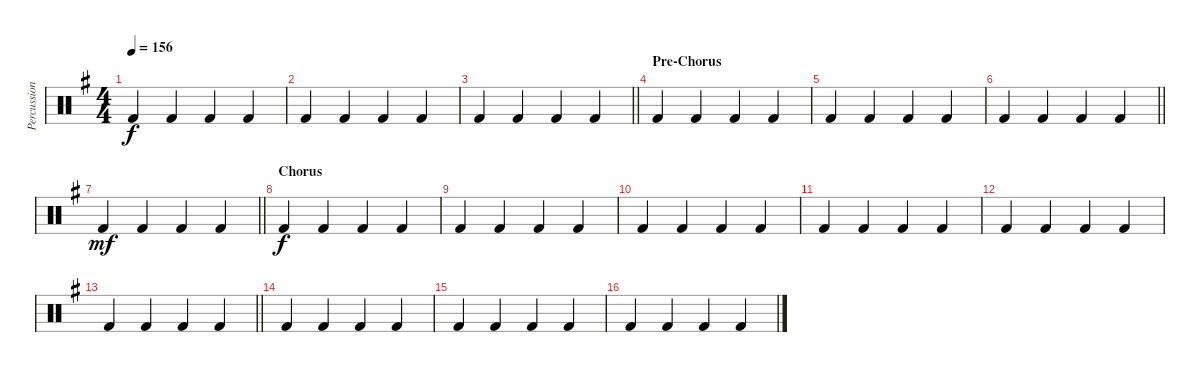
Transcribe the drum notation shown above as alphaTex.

\track ("Percussion" "Percussion") {instrument percussion}
\staff {score}
\articulation defaults
\ts (4 4)
\tempo 156
\clef neutral
\ks g "Kick (hit) 2".4{dy f} "Kick (hit) 2".4 "Kick (hit) 2".4 "Kick (hit) 2".4
|
"Kick (hit) 2".4 "Kick (hit) 2".4 "Kick (hit) 2".4 "Kick (hit) 2".4 |
\barLineRight lightlight "Kick (hit) 2".4 "Kick (hit) 2".4 "Kick (hit) 2".4 "Kick (hit) 2".4
|
\section ("" "Pre-Chorus")
"Kick (hit) 2".4 "Kick (hit) 2".4 "Kick (hit) 2".4 "Kick (hit) 2".4 |
"Kick (hit) 2".4 "Kick (hit) 2".4 "Kick (hit) 2".4 "Kick (hit) 2".4 |
\barLineRight lightlight "Kick (hit) 2".4 "Kick (hit) 2".4 "Kick (hit) 2".4 "Kick (hit) 2".4
|
\barLineRight lightlight "Kick (hit) 2".4{dy mf} "Kick (hit) 2".4 "Kick (hit) 2".4 "Kick (hit) 2".4
|
\section ("" "Chorus")
"Kick (hit) 2".4{dy f} "Kick (hit) 2".4 "Kick (hit) 2".4 "Kick (hit) 2".4 |
"Kick (hit) 2".4 "Kick (hit) 2".4 "Kick (hit) 2".4 "Kick (hit) 2".4 |
"Kick (hit) 2".4 "Kick (hit) 2".4 "Kick (hit) 2".4 "Kick (hit) 2".4 |
"Kick (hit) 2".4 "Kick (hit) 2".4 "Kick (hit) 2".4 "Kick (hit) 2".4 |
"Kick (hit) 2".4 "Kick (hit) 2".4 "Kick (hit) 2".4 "Kick (hit) 2".4 |
\barLineRight lightlight "Kick (hit) 2".4 "Kick (hit) 2".4 "Kick (hit) 2".4 "Kick (hit) 2".4
|
"Kick (hit) 2".4 "Kick (hit) 2".4 "Kick (hit) 2".4 "Kick (hit) 2".4 |
"Kick (hit) 2".4 "Kick (hit) 2".4 "Kick (hit) 2".4 "Kick (hit) 2".4 |
"Kick (hit) 2".4 "Kick (hit) 2".4 "Kick (hit) 2".4 "Kick (hit) 2".4
